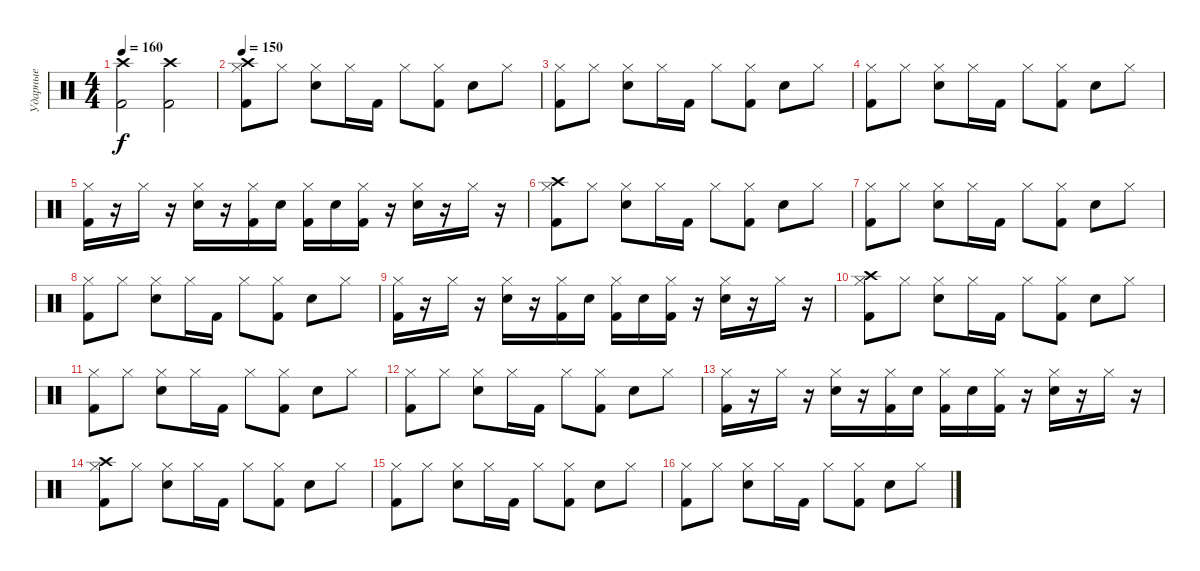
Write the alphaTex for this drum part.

\track ("Ударные" "Ударные") {instrument percussion}
\staff {score}
\articulation defaults
\ts (4 4)
\tempo 160
\clef neutral
\ks c
("Crash high (hit)" "Kick (hit) 2").2{dy f} ("Kick (hit) 2" "Crash high (hit)").2 |
\tempo 150
("Kick (hit) 2" "Hi-Hat (closed)" "Crash high (hit)").8 "Hi-Hat (closed)".8 ("Electric Snare (hit)" "Hi-Hat (closed)").8 "Hi-Hat (closed)".16 "Kick (hit) 2".16 "Hi-Hat (closed)".8 ("Kick (hit) 2" "Hi-Hat (closed)").8 "Electric Snare (hit)".8 "Hi-Hat (closed)".8 |
("Kick (hit) 2" "Hi-Hat (closed)").8 "Hi-Hat (closed)".8 ("Electric Snare (hit)" "Hi-Hat (closed)").8 "Hi-Hat (closed)".16 "Kick (hit) 2".16 "Hi-Hat (closed)".8 ("Kick (hit) 2" "Hi-Hat (closed)").8 "Electric Snare (hit)".8 "Hi-Hat (closed)".8 |
("Kick (hit) 2" "Hi-Hat (closed)").8 "Hi-Hat (closed)".8 ("Electric Snare (hit)" "Hi-Hat (closed)").8 "Hi-Hat (closed)".16 "Kick (hit) 2".16 "Hi-Hat (closed)".8 ("Kick (hit) 2" "Hi-Hat (closed)").8 "Electric Snare (hit)".8 "Hi-Hat (closed)".8 |
("Kick (hit) 2" "Hi-Hat (closed)").16 r.16 "Hi-Hat (closed)".16 r.16 ("Electric Snare (hit)" "Hi-Hat (closed)").16 r.16 ("Kick (hit) 2" "Hi-Hat (closed)").16 "Electric Snare (hit)".16 ("Kick (hit) 2" "Hi-Hat (closed)").16 "Electric Snare (hit)".16 ("Kick (hit) 2" "Hi-Hat (closed)").16 r.16 ("Electric Snare (hit)" "Hi-Hat (closed)").16 r.16 "Hi-Hat (closed)".16 r.16 |
("Kick (hit) 2" "Hi-Hat (closed)" "Crash high (hit)").8 "Hi-Hat (closed)".8 ("Electric Snare (hit)" "Hi-Hat (closed)").8 "Hi-Hat (closed)".16 "Kick (hit) 2".16 "Hi-Hat (closed)".8 ("Kick (hit) 2" "Hi-Hat (closed)").8 "Electric Snare (hit)".8 "Hi-Hat (closed)".8 |
("Kick (hit) 2" "Hi-Hat (closed)").8 "Hi-Hat (closed)".8 ("Electric Snare (hit)" "Hi-Hat (closed)").8 "Hi-Hat (closed)".16 "Kick (hit) 2".16 "Hi-Hat (closed)".8 ("Kick (hit) 2" "Hi-Hat (closed)").8 "Electric Snare (hit)".8 "Hi-Hat (closed)".8 |
("Kick (hit) 2" "Hi-Hat (closed)").8 "Hi-Hat (closed)".8 ("Electric Snare (hit)" "Hi-Hat (closed)").8 "Hi-Hat (closed)".16 "Kick (hit) 2".16 "Hi-Hat (closed)".8 ("Kick (hit) 2" "Hi-Hat (closed)").8 "Electric Snare (hit)".8 "Hi-Hat (closed)".8 |
("Kick (hit) 2" "Hi-Hat (closed)").16 r.16 "Hi-Hat (closed)".16 r.16 ("Electric Snare (hit)" "Hi-Hat (closed)").16 r.16 ("Kick (hit) 2" "Hi-Hat (closed)").16 "Electric Snare (hit)".16 ("Kick (hit) 2" "Hi-Hat (closed)").16 "Electric Snare (hit)".16 ("Kick (hit) 2" "Hi-Hat (closed)").16 r.16 ("Electric Snare (hit)" "Hi-Hat (closed)").16 r.16 "Hi-Hat (closed)".16 r.16 |
("Kick (hit) 2" "Hi-Hat (closed)" "Crash high (hit)").8 "Hi-Hat (closed)".8 ("Electric Snare (hit)" "Hi-Hat (closed)").8 "Hi-Hat (closed)".16 "Kick (hit) 2".16 "Hi-Hat (closed)".8 ("Kick (hit) 2" "Hi-Hat (closed)").8 "Electric Snare (hit)".8 "Hi-Hat (closed)".8 |
("Kick (hit) 2" "Hi-Hat (closed)").8 "Hi-Hat (closed)".8 ("Electric Snare (hit)" "Hi-Hat (closed)").8 "Hi-Hat (closed)".16 "Kick (hit) 2".16 "Hi-Hat (closed)".8 ("Kick (hit) 2" "Hi-Hat (closed)").8 "Electric Snare (hit)".8 "Hi-Hat (closed)".8 |
("Kick (hit) 2" "Hi-Hat (closed)").8 "Hi-Hat (closed)".8 ("Electric Snare (hit)" "Hi-Hat (closed)").8 "Hi-Hat (closed)".16 "Kick (hit) 2".16 "Hi-Hat (closed)".8 ("Kick (hit) 2" "Hi-Hat (closed)").8 "Electric Snare (hit)".8 "Hi-Hat (closed)".8 |
("Kick (hit) 2" "Hi-Hat (closed)").16 r.16 "Hi-Hat (closed)".16 r.16 ("Electric Snare (hit)" "Hi-Hat (closed)").16 r.16 ("Kick (hit) 2" "Hi-Hat (closed)").16 "Electric Snare (hit)".16 ("Kick (hit) 2" "Hi-Hat (closed)").16 "Electric Snare (hit)".16 ("Kick (hit) 2" "Hi-Hat (closed)").16 r.16 ("Electric Snare (hit)" "Hi-Hat (closed)").16 r.16 "Hi-Hat (closed)".16 r.16 |
("Kick (hit) 2" "Hi-Hat (closed)" "Crash high (hit)").8 "Hi-Hat (closed)".8 ("Electric Snare (hit)" "Hi-Hat (closed)").8 "Hi-Hat (closed)".16 "Kick (hit) 2".16 "Hi-Hat (closed)".8 ("Kick (hit) 2" "Hi-Hat (closed)").8 "Electric Snare (hit)".8 "Hi-Hat (closed)".8 |
("Kick (hit) 2" "Hi-Hat (closed)").8 "Hi-Hat (closed)".8 ("Electric Snare (hit)" "Hi-Hat (closed)").8 "Hi-Hat (closed)".16 "Kick (hit) 2".16 "Hi-Hat (closed)".8 ("Kick (hit) 2" "Hi-Hat (closed)").8 "Electric Snare (hit)".8 "Hi-Hat (closed)".8 |
("Kick (hit) 2" "Hi-Hat (closed)").8 "Hi-Hat (closed)".8 ("Electric Snare (hit)" "Hi-Hat (closed)").8 "Hi-Hat (closed)".16 "Kick (hit) 2".16 "Hi-Hat (closed)".8 ("Kick (hit) 2" "Hi-Hat (closed)").8 "Electric Snare (hit)".8 "Hi-Hat (closed)".8
